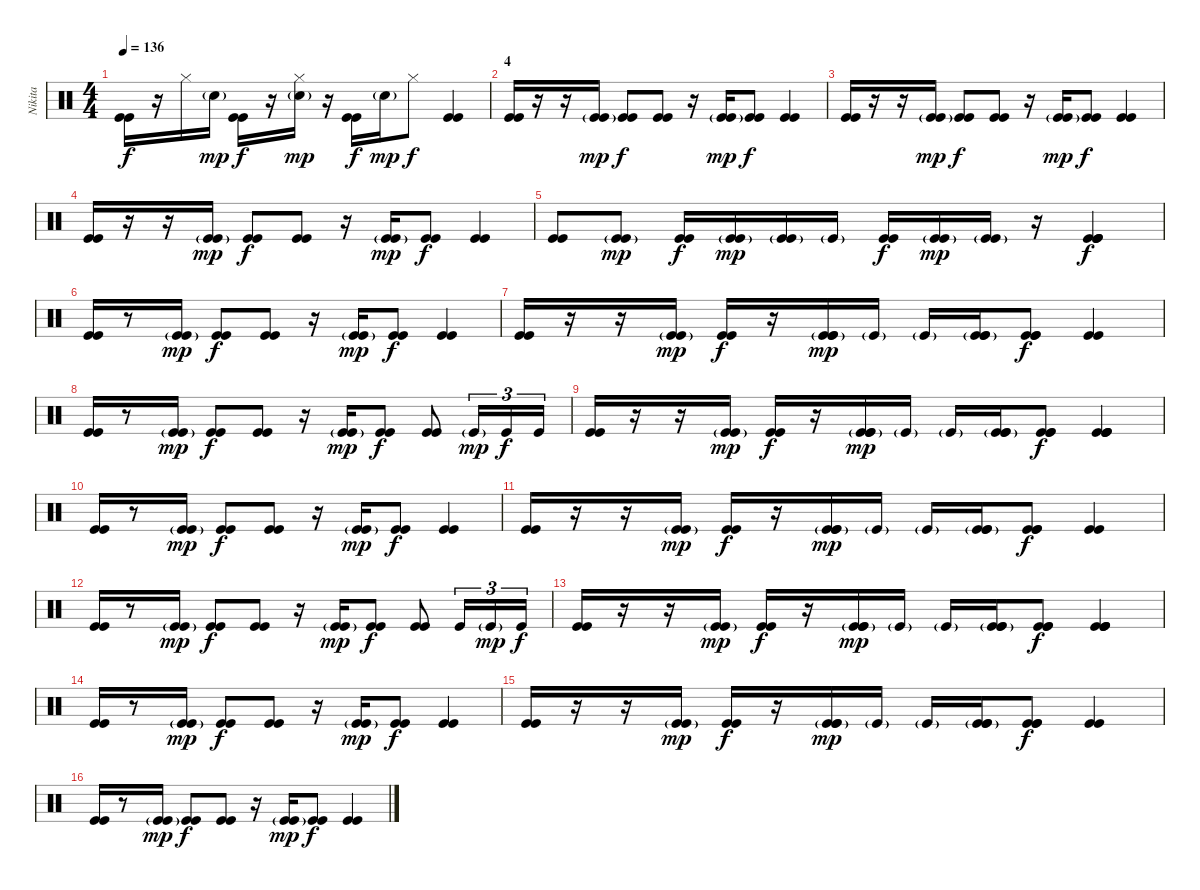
\track ("Nikita" "Nikita") {instrument percussion}
\staff {score}
\articulation defaults
\ts (4 4)
\tempo 136
\clef neutral
\ks c
("Kick (hit)" "Kick (hit)").16{dy f} r.16 "Hi-Hat (closed)".16 "Snare (hit) 2"{g}.16{dy mp} ("Kick (hit)" "Kick (hit)").16{dy f} r.16 ("Hi-Hat (closed)" "Snare (hit) 2"{g}).16{dy mp} r.16 ("Kick (hit)" "Kick (hit)").16{dy f} "Snare (hit) 2"{g}.16{dy mp} "Hi-Hat (closed)".8{dy f} ("Kick (hit)" "Kick (hit)").4 |
\section ("" "4")
("Kick (hit)" "Kick (hit)").16 r.16 r.16 ("Kick (hit)"{g} "Kick (hit)"{g}).16{dy mp} ("Kick (hit)" "Kick (hit)").8{dy f} ("Kick (hit)" "Kick (hit)").8 r.16 ("Kick (hit)"{g} "Kick (hit)"{g}).16{dy mp} ("Kick (hit)" "Kick (hit)").8{dy f} ("Kick (hit)" "Kick (hit)").4 |
("Kick (hit)" "Kick (hit)").16 r.16 r.16 ("Kick (hit)"{g} "Kick (hit)"{g}).16{dy mp} ("Kick (hit)" "Kick (hit)").8{dy f} ("Kick (hit)" "Kick (hit)").8 r.16 ("Kick (hit)"{g} "Kick (hit)"{g}).16{dy mp} ("Kick (hit)" "Kick (hit)").8{dy f} ("Kick (hit)" "Kick (hit)").4 |
("Kick (hit)" "Kick (hit)").16 r.16 r.16 ("Kick (hit)"{g} "Kick (hit)"{g}).16{dy mp} ("Kick (hit)" "Kick (hit)").8{dy f} ("Kick (hit)" "Kick (hit)").8 r.16 ("Kick (hit)"{g} "Kick (hit)"{g}).16{dy mp} ("Kick (hit)" "Kick (hit)").8{dy f} ("Kick (hit)" "Kick (hit)").4 |
("Kick (hit)" "Kick (hit)").8 ("Kick (hit)"{g} "Kick (hit)"{g}).8{dy mp} ("Kick (hit)" "Kick (hit)").16{dy f} ("Kick (hit)"{g} "Kick (hit)"{g}).16{dy mp} ("Kick (hit)"{g} "Kick (hit)"{g}).16 "Kick (hit)"{g}.16 ("Kick (hit)" "Kick (hit)").16{dy f} ("Kick (hit)"{g} "Kick (hit)"{g}).16{dy mp} ("Kick (hit)"{g} "Kick (hit)"{g}).16 r.16 ("Kick (hit)" "Kick (hit)" "Kick (hit)" "Kick (hit)").4{dy f} |
("Kick (hit)" "Kick (hit)").16 r.8 ("Kick (hit)"{g} "Kick (hit)"{g}).16{dy mp} ("Kick (hit)" "Kick (hit)").8{dy f} ("Kick (hit)" "Kick (hit)").8 r.16 ("Kick (hit)"{g} "Kick (hit)"{g}).16{dy mp} ("Kick (hit)" "Kick (hit)").8{dy f} ("Kick (hit)" "Kick (hit)").4 |
("Kick (hit)" "Kick (hit)").16 r.16 r.16 ("Kick (hit)"{g} "Kick (hit)"{g}).16{dy mp} ("Kick (hit)" "Kick (hit)").16{dy f} r.16 ("Kick (hit)" "Kick (hit)" "Kick (hit)"{g}).16{dy mp} "Kick (hit)"{g}.16 "Kick (hit)"{g}.16 ("Kick (hit)"{g} "Kick (hit)"{g} "Kick (hit)"{g}).16 ("Kick (hit)" "Kick (hit)" "Kick (hit)").8{dy f} ("Kick (hit)" "Kick (hit)").4 |
("Kick (hit)" "Kick (hit)").16 r.8 ("Kick (hit)"{g} "Kick (hit)"{g}).16{dy mp} ("Kick (hit)" "Kick (hit)").8{dy f} ("Kick (hit)" "Kick (hit)").8 r.16 ("Kick (hit)"{g} "Kick (hit)"{g}).16{dy mp} ("Kick (hit)" "Kick (hit)").8{dy f} ("Kick (hit)" "Kick (hit)").8 "Kick (hit)"{g}.16{tu (3 2) dy mp} "Kick (hit)".16{tu (3 2) dy f} "Kick (hit)".16{tu (3 2)} |
("Kick (hit)" "Kick (hit)").16 r.16 r.16 ("Kick (hit)"{g} "Kick (hit)"{g}).16{dy mp} ("Kick (hit)" "Kick (hit)").16{dy f} r.16 ("Kick (hit)" "Kick (hit)" "Kick (hit)"{g}).16{dy mp} "Kick (hit)"{g}.16 "Kick (hit)"{g}.16 ("Kick (hit)"{g} "Kick (hit)"{g} "Kick (hit)"{g}).16 ("Kick (hit)" "Kick (hit)" "Kick (hit)").8{dy f} ("Kick (hit)" "Kick (hit)" "Kick (hit)" "Kick (hit)").4 |
("Kick (hit)" "Kick (hit)").16 r.8 ("Kick (hit)"{g} "Kick (hit)"{g}).16{dy mp} ("Kick (hit)" "Kick (hit)").8{dy f} ("Kick (hit)" "Kick (hit)").8 r.16 ("Kick (hit)"{g} "Kick (hit)"{g}).16{dy mp} ("Kick (hit)" "Kick (hit)").8{dy f} ("Kick (hit)" "Kick (hit)").4 |
("Kick (hit)" "Kick (hit)").16 r.16 r.16 ("Kick (hit)"{g} "Kick (hit)"{g}).16{dy mp} ("Kick (hit)" "Kick (hit)").16{dy f} r.16 ("Kick (hit)" "Kick (hit)" "Kick (hit)"{g}).16{dy mp} "Kick (hit)"{g}.16 "Kick (hit)"{g}.16 ("Kick (hit)"{g} "Kick (hit)"{g} "Kick (hit)"{g}).16 ("Kick (hit)" "Kick (hit)" "Kick (hit)").8{dy f} ("Kick (hit)" "Kick (hit)").4 |
("Kick (hit)" "Kick (hit)").16 r.8 ("Kick (hit)"{g} "Kick (hit)"{g}).16{dy mp} ("Kick (hit)" "Kick (hit)").8{dy f} ("Kick (hit)" "Kick (hit)").8 r.16 ("Kick (hit)"{g} "Kick (hit)"{g}).16{dy mp} ("Kick (hit)" "Kick (hit)").8{dy f} ("Kick (hit)" "Kick (hit)").8 "Kick (hit)".16{tu (3 2)} "Kick (hit)"{g}.16{tu (3 2) dy mp} "Kick (hit)".16{tu (3 2) dy f} |
("Kick (hit)" "Kick (hit)").16 r.16 r.16 ("Kick (hit)"{g} "Kick (hit)"{g}).16{dy mp} ("Kick (hit)" "Kick (hit)").16{dy f} r.16 ("Kick (hit)" "Kick (hit)" "Kick (hit)"{g}).16{dy mp} "Kick (hit)"{g}.16 "Kick (hit)"{g}.16 ("Kick (hit)"{g} "Kick (hit)"{g} "Kick (hit)"{g}).16 ("Kick (hit)" "Kick (hit)" "Kick (hit)").8{dy f} ("Kick (hit)" "Kick (hit)" "Kick (hit)" "Kick (hit)").4 |
("Kick (hit)" "Kick (hit)").16 r.8 ("Kick (hit)"{g} "Kick (hit)"{g}).16{dy mp} ("Kick (hit)" "Kick (hit)").8{dy f} ("Kick (hit)" "Kick (hit)").8 r.16 ("Kick (hit)"{g} "Kick (hit)"{g}).16{dy mp} ("Kick (hit)" "Kick (hit)").8{dy f} ("Kick (hit)" "Kick (hit)").4 |
("Kick (hit)" "Kick (hit)").16 r.16 r.16 ("Kick (hit)"{g} "Kick (hit)"{g}).16{dy mp} ("Kick (hit)" "Kick (hit)").16{dy f} r.16 ("Kick (hit)" "Kick (hit)" "Kick (hit)"{g}).16{dy mp} "Kick (hit)"{g}.16 "Kick (hit)"{g}.16 ("Kick (hit)"{g} "Kick (hit)"{g} "Kick (hit)"{g}).16 ("Kick (hit)" "Kick (hit)" "Kick (hit)").8{dy f} ("Kick (hit)" "Kick (hit)").4 |
("Kick (hit)" "Kick (hit)").16 r.8 ("Kick (hit)"{g} "Kick (hit)"{g}).16{dy mp} ("Kick (hit)" "Kick (hit)").8{dy f} ("Kick (hit)" "Kick (hit)").8 r.16 ("Kick (hit)"{g} "Kick (hit)"{g}).16{dy mp} ("Kick (hit)" "Kick (hit)").8{dy f} ("Kick (hit)" "Kick (hit)").4
